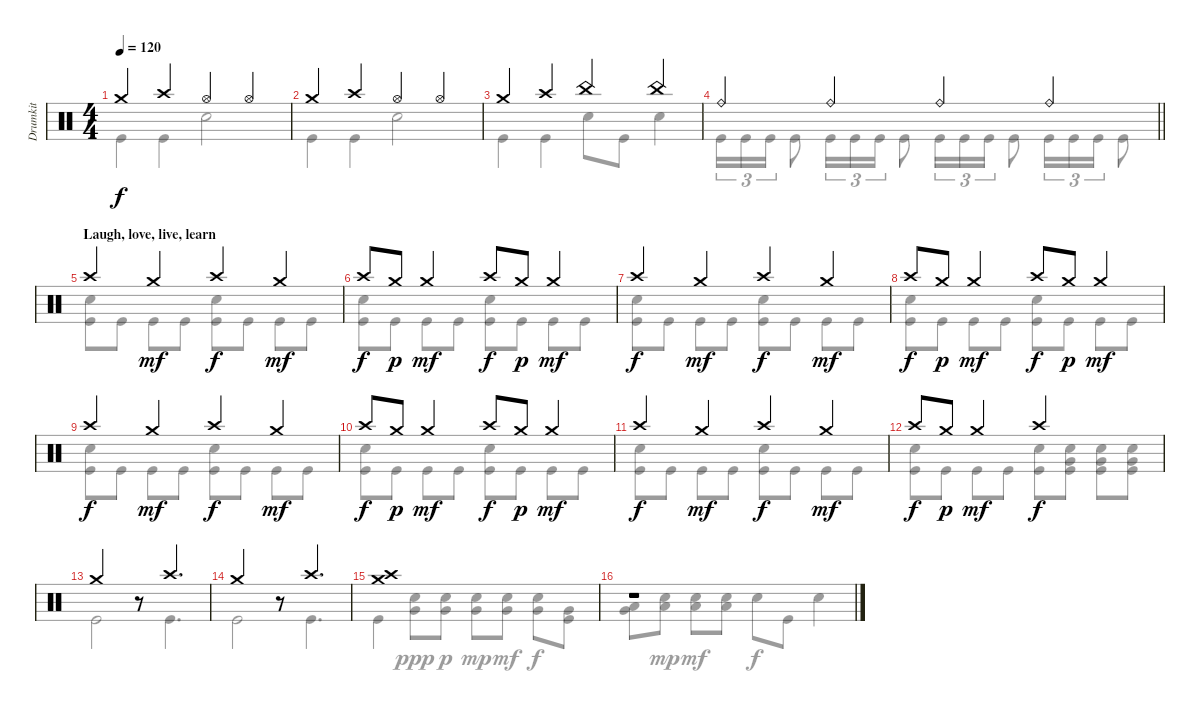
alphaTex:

\track ("Drumkit" "Drumkit") {instrument percussion}
\staff {score}
\articulation defaults
\voice
\ts (4 4)
\tempo 120
\clef neutral
\ks c "Crash medium (hit)".4{dy f} "Crash high (hit)".4 "Hi-Hat (open)".4 "Hi-Hat (open)".4
|
"Crash medium (hit)".4 "Crash high (hit)".4 "Hi-Hat (open)".4 "Hi-Hat (open)".4 |
"Crash medium (hit)".4 "Crash high (hit)".4 "China (hit)".4 "China (hit)".4 |
\barLineRight lightlight "Ride (bell)".4 "Ride (bell)".4 "Ride (bell)".4 "Ride (bell)".4
|
\section ("" "Laugh, love, live, learn")
"Crash high (hit)".4 "Crash medium (hit)".4{dy mf} "Crash high (hit)".4{dy f} "Crash medium (hit)".4{dy mf} |
"Crash high (hit)".8{dy f} "Crash medium (hit)".8{dy p} "Crash medium (hit)".4{dy mf} "Crash high (hit)".8{dy f} "Crash medium (hit)".8{dy p} "Crash medium (hit)".4{dy mf} |
"Crash high (hit)".4{dy f} "Crash medium (hit)".4{dy mf} "Crash high (hit)".4{dy f} "Crash medium (hit)".4{dy mf} |
"Crash high (hit)".8{dy f} "Crash medium (hit)".8{dy p} "Crash medium (hit)".4{dy mf} "Crash high (hit)".8{dy f} "Crash medium (hit)".8{dy p} "Crash medium (hit)".4{dy mf} |
"Crash high (hit)".4{dy f} "Crash medium (hit)".4{dy mf} "Crash high (hit)".4{dy f} "Crash medium (hit)".4{dy mf} |
"Crash high (hit)".8{dy f} "Crash medium (hit)".8{dy p} "Crash medium (hit)".4{dy mf} "Crash high (hit)".8{dy f} "Crash medium (hit)".8{dy p} "Crash medium (hit)".4{dy mf} |
"Crash high (hit)".4{dy f} "Crash medium (hit)".4{dy mf} "Crash high (hit)".4{dy f} "Crash medium (hit)".4{dy mf} |
"Crash high (hit)".8{dy f} "Crash medium (hit)".8{dy p} "Crash medium (hit)".4{dy mf} "Crash high (hit)".2{dy f} |
"Crash medium (hit)".2 r.8 "Crash high (hit)".4{d} |
"Crash medium (hit)".2 r.8 "Crash high (hit)".4{d} |
("Crash medium (hit)" "Crash high (hit)").1 |
r.1
\voice
\clef neutral
\ottava regular
\simile none
\ks c "Kick (hit)".4{dy f} "Kick (hit)".4 "Snare (hit) 2".2
|
"Kick (hit)".4 "Kick (hit)".4 "Snare (hit) 2".2 |
"Kick (hit)".4 "Kick (hit)".4 "Snare (hit) 2".8 "Kick (hit)".8 "Snare (hit) 2".4 |
\barLineRight lightlight "Kick (hit)".16{tu (3 2)} "Kick (hit)".16{tu (3 2)} "Kick (hit)".16{tu (3 2)} "Kick (hit)".8 "Kick (hit)".16{tu (3 2)} "Kick (hit)".16{tu (3 2)} "Kick (hit)".16{tu (3 2)} "Kick (hit)".8 "Kick (hit)".16{tu (3 2)} "Kick (hit)".16{tu (3 2)} "Kick (hit)".16{tu (3 2)} "Kick (hit)".8 "Kick (hit)".16{tu (3 2)} "Kick (hit)".16{tu (3 2)} "Kick (hit)".16{tu (3 2)} "Kick (hit)".8
|
("Snare (hit) 2" "Kick (hit)").8 "Kick (hit)".8 "Kick (hit)".8 "Kick (hit)".8 ("Snare (hit) 2" "Kick (hit)").8 "Kick (hit)".8 "Kick (hit)".8 "Kick (hit)".8 |
("Snare (hit) 2" "Kick (hit)").8 "Kick (hit)".8 "Kick (hit)".8 "Kick (hit)".8 ("Snare (hit) 2" "Kick (hit)").8 "Kick (hit)".8 "Kick (hit)".8 "Kick (hit)".8 |
("Snare (hit) 2" "Kick (hit)").8 "Kick (hit)".8 "Kick (hit)".8 "Kick (hit)".8 ("Snare (hit) 2" "Kick (hit)").8 "Kick (hit)".8 "Kick (hit)".8 "Kick (hit)".8 |
("Snare (hit) 2" "Kick (hit)").8 "Kick (hit)".8 "Kick (hit)".8 "Kick (hit)".8 ("Snare (hit) 2" "Kick (hit)").8 "Kick (hit)".8 "Kick (hit)".8 "Kick (hit)".8 |
("Snare (hit) 2" "Kick (hit)").8 "Kick (hit)".8 "Kick (hit)".8 "Kick (hit)".8 ("Snare (hit) 2" "Kick (hit)").8 "Kick (hit)".8 "Kick (hit)".8 "Kick (hit)".8 |
("Snare (hit) 2" "Kick (hit)").8 "Kick (hit)".8 "Kick (hit)".8 "Kick (hit)".8 ("Snare (hit) 2" "Kick (hit)").8 "Kick (hit)".8 "Kick (hit)".8 "Kick (hit)".8 |
("Snare (hit) 2" "Kick (hit)").8 "Kick (hit)".8 "Kick (hit)".8 "Kick (hit)".8 ("Snare (hit) 2" "Kick (hit)").8 "Kick (hit)".8 "Kick (hit)".8 "Kick (hit)".8 |
("Snare (hit) 2" "Kick (hit)").8 "Kick (hit)".8 "Kick (hit)".8 "Kick (hit)".8 ("Snare (hit) 2" "Kick (hit)").8 ("Snare (hit) 2" "Very Low Tom (hit)" "Kick (hit)").8 ("Snare (hit) 2" "Very Low Tom (hit)" "Kick (hit)").8 ("Snare (hit) 2" "Very Low Tom (hit)" "Kick (hit)").8 |
"Kick (hit)".2 r.8 "Kick (hit)".4{d} |
"Kick (hit)".2 r.8 "Kick (hit)".4{d} |
"Kick (hit)".4 ("Snare (hit) 2" "Very Low Tom (hit)").8{dy ppp} ("Snare (hit) 2" "Very Low Tom (hit)").8{dy p} ("Snare (hit) 2" "Very Low Tom (hit)").8{dy mp} ("Snare (hit) 2" "Very Low Tom (hit)").8{dy mf} ("Snare (hit) 2" "Very Low Tom (hit)").8{dy f} ("Very Low Tom (hit)" "Kick (hit)").8 |
("Very Low Tom (hit)" "Low Floor Tom (hit)").8 ("Snare (hit) 2" "Low Floor Tom (hit)").8{dy mp} ("Snare (hit) 2" "Low Floor Tom (hit)").8{dy mf} ("Snare (hit) 2" "Low Floor Tom (hit)").8 "Snare (hit) 2".8{dy f} "Kick (hit)".8 "Snare (hit) 2".4
